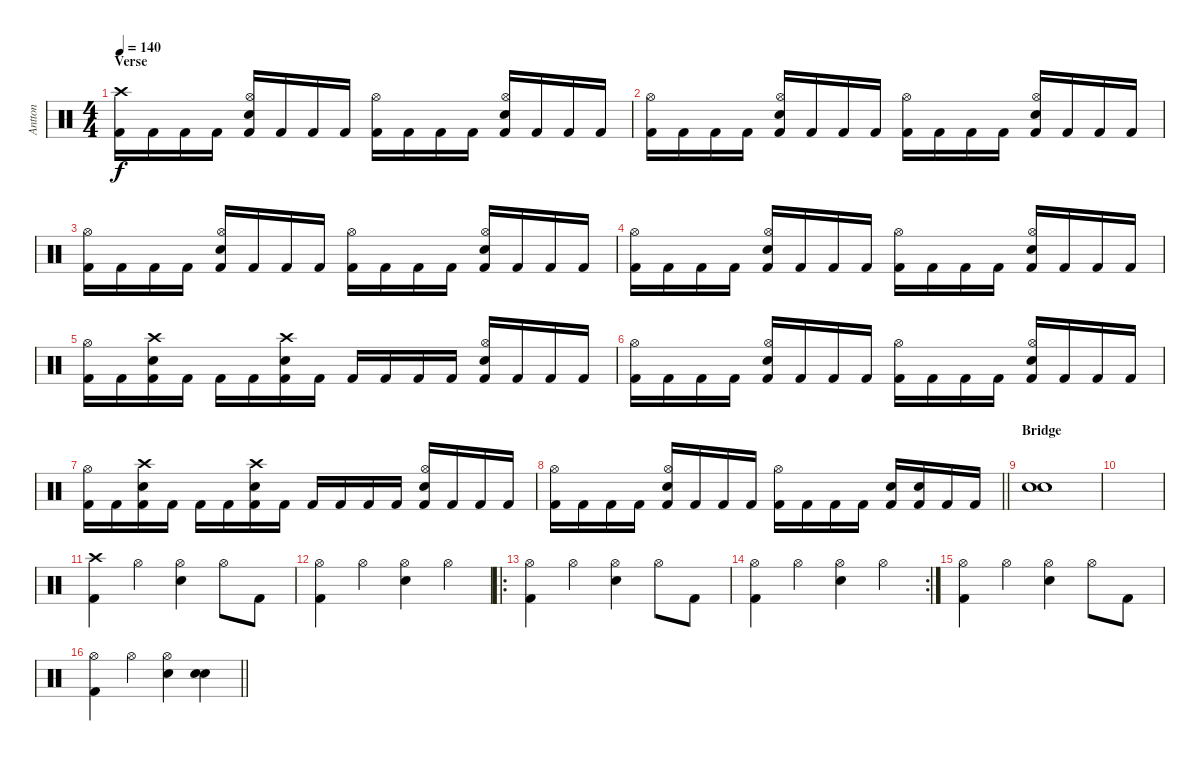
\track ("Antton" "Antton") {instrument percussion}
\staff {score}
\articulation defaults
\ts (4 4)
\section ("" "Verse")
\tempo 140
\clef neutral
\ks c
("Crash high (hit)" "Kick (hit) 2").16{dy f} "Kick (hit) 2".16 "Kick (hit) 2".16 "Kick (hit) 2".16 ("Hi-Hat (open)" "Snare (hit) 2" "Kick (hit) 2").16 "Kick (hit) 2".16 "Kick (hit) 2".16 "Kick (hit) 2".16 ("Hi-Hat (open)" "Kick (hit) 2").16 "Kick (hit) 2".16 "Kick (hit) 2".16 "Kick (hit) 2".16 ("Hi-Hat (open)" "Snare (hit) 2" "Kick (hit) 2").16 "Kick (hit) 2".16 "Kick (hit) 2".16 "Kick (hit) 2".16 |
("Hi-Hat (open)" "Kick (hit) 2").16 "Kick (hit) 2".16 "Kick (hit) 2".16 "Kick (hit) 2".16 ("Hi-Hat (open)" "Snare (hit) 2" "Kick (hit) 2").16 "Kick (hit) 2".16 "Kick (hit) 2".16 "Kick (hit) 2".16 ("Hi-Hat (open)" "Kick (hit) 2").16 "Kick (hit) 2".16 "Kick (hit) 2".16 "Kick (hit) 2".16 ("Hi-Hat (open)" "Snare (hit) 2" "Kick (hit) 2").16 "Kick (hit) 2".16 "Kick (hit) 2".16 "Kick (hit) 2".16 |
("Hi-Hat (open)" "Kick (hit) 2").16 "Kick (hit) 2".16 "Kick (hit) 2".16 "Kick (hit) 2".16 ("Hi-Hat (open)" "Snare (hit) 2" "Kick (hit) 2").16 "Kick (hit) 2".16 "Kick (hit) 2".16 "Kick (hit) 2".16 ("Hi-Hat (open)" "Kick (hit) 2").16 "Kick (hit) 2".16 "Kick (hit) 2".16 "Kick (hit) 2".16 ("Hi-Hat (open)" "Snare (hit) 2" "Kick (hit) 2").16 "Kick (hit) 2".16 "Kick (hit) 2".16 "Kick (hit) 2".16 |
("Hi-Hat (open)" "Kick (hit) 2").16 "Kick (hit) 2".16 "Kick (hit) 2".16 "Kick (hit) 2".16 ("Hi-Hat (open)" "Snare (hit) 2" "Kick (hit) 2").16 "Kick (hit) 2".16 "Kick (hit) 2".16 "Kick (hit) 2".16 ("Hi-Hat (open)" "Kick (hit) 2").16 "Kick (hit) 2".16 "Kick (hit) 2".16 "Kick (hit) 2".16 ("Hi-Hat (open)" "Snare (hit) 2" "Kick (hit) 2").16 "Kick (hit) 2".16 "Kick (hit) 2".16 "Kick (hit) 2".16 |
("Hi-Hat (open)" "Kick (hit) 2").16 "Kick (hit) 2".16 ("Crash high (hit)" "Snare (hit) 2" "Kick (hit) 2").16 "Kick (hit) 2".16 "Kick (hit) 2".16 "Kick (hit) 2".16 ("Crash high (hit)" "Snare (hit) 2" "Kick (hit) 2").16 "Kick (hit) 2".16 "Kick (hit) 2".16 "Kick (hit) 2".16 "Kick (hit) 2".16 "Kick (hit) 2".16 ("Hi-Hat (open)" "Snare (hit) 2" "Kick (hit) 2").16 "Kick (hit) 2".16 "Kick (hit) 2".16 "Kick (hit) 2".16 |
("Hi-Hat (open)" "Kick (hit) 2").16 "Kick (hit) 2".16 "Kick (hit) 2".16 "Kick (hit) 2".16 ("Hi-Hat (open)" "Snare (hit) 2" "Kick (hit) 2").16 "Kick (hit) 2".16 "Kick (hit) 2".16 "Kick (hit) 2".16 ("Hi-Hat (open)" "Kick (hit) 2").16 "Kick (hit) 2".16 "Kick (hit) 2".16 "Kick (hit) 2".16 ("Hi-Hat (open)" "Snare (hit) 2" "Kick (hit) 2").16 "Kick (hit) 2".16 "Kick (hit) 2".16 "Kick (hit) 2".16 |
("Hi-Hat (open)" "Kick (hit) 2").16 "Kick (hit) 2".16 ("Crash high (hit)" "Snare (hit) 2" "Kick (hit) 2").16 "Kick (hit) 2".16 "Kick (hit) 2".16 "Kick (hit) 2".16 ("Crash high (hit)" "Snare (hit) 2" "Kick (hit) 2").16 "Kick (hit) 2".16 "Kick (hit) 2".16 "Kick (hit) 2".16 "Kick (hit) 2".16 "Kick (hit) 2".16 ("Hi-Hat (open)" "Snare (hit) 2" "Kick (hit) 2").16 "Kick (hit) 2".16 "Kick (hit) 2".16 "Kick (hit) 2".16 |
\barLineRight lightlight
("Hi-Hat (open)" "Kick (hit) 2").16 "Kick (hit) 2".16 "Kick (hit) 2".16 "Kick (hit) 2".16 ("Hi-Hat (open)" "Snare (hit) 2" "Kick (hit) 2").16 "Kick (hit) 2".16 "Kick (hit) 2".16 "Kick (hit) 2".16 ("Hi-Hat (open)" "Kick (hit) 2").16 "Kick (hit) 2".16 "Kick (hit) 2".16 "Kick (hit) 2".16 ("Snare (hit) 2" "Kick (hit) 2").16 ("Snare (hit) 2" "Kick (hit) 2").16 "Kick (hit) 2".16 "Kick (hit) 2".16 |
\section ("" "Bridge")
("Snare (hit) 2" "Snare (hit) 2").1 |
|
("Crash high (hit)" "Kick (hit) 2").4 "Hi-Hat (open)".4 ("Hi-Hat (open)" "Snare (hit) 2").4 "Hi-Hat (open)".8 "Kick (hit) 2".8 |
("Hi-Hat (open)" "Kick (hit) 2").4 "Hi-Hat (open)".4 ("Hi-Hat (open)" "Snare (hit) 2").4 "Hi-Hat (open)".4 |
\ro
("Hi-Hat (open)" "Kick (hit) 2").4 "Hi-Hat (open)".4 ("Hi-Hat (open)" "Snare (hit) 2").4 "Hi-Hat (open)".8 "Kick (hit) 2".8 |
\rc 2
("Hi-Hat (open)" "Kick (hit) 2").4 "Hi-Hat (open)".4 ("Hi-Hat (open)" "Snare (hit) 2").4 "Hi-Hat (open)".4 |
("Hi-Hat (open)" "Kick (hit) 2").4 "Hi-Hat (open)".4 ("Hi-Hat (open)" "Snare (hit) 2").4 "Hi-Hat (open)".8 "Kick (hit) 2".8 |
\barLineRight lightlight
("Hi-Hat (open)" "Kick (hit) 2").4 "Hi-Hat (open)".4 ("Hi-Hat (open)" "Snare (hit) 2").4 ("Snare (hit) 2" "Snare (hit) 2").4
